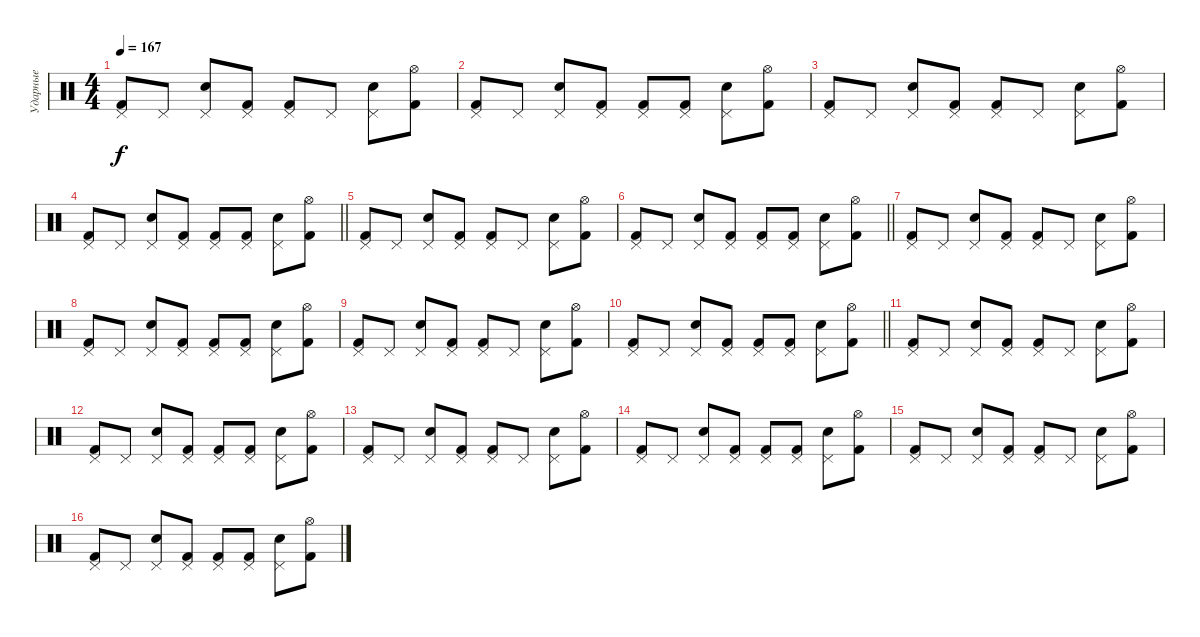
\track ("Ударные" "Ударные") {instrument percussion}
\staff {score}
\articulation defaults
\ts (4 4)
\tempo 167
\clef neutral
\ks c
("Pedal Hi-Hat (hit)" "Kick (hit) 2").8{dy f} "Pedal Hi-Hat (hit)".8 ("Pedal Hi-Hat (hit)" "Electric Snare (hit)").8 ("Pedal Hi-Hat (hit)" "Kick (hit) 2").8 ("Pedal Hi-Hat (hit)" "Kick (hit) 2").8 "Pedal Hi-Hat (hit)".8 ("Pedal Hi-Hat (hit)" "Electric Snare (hit)").8 ("Hi-Hat (open)" "Kick (hit) 2").8 |
("Pedal Hi-Hat (hit)" "Kick (hit) 2").8 "Pedal Hi-Hat (hit)".8 ("Pedal Hi-Hat (hit)" "Electric Snare (hit)").8 ("Pedal Hi-Hat (hit)" "Kick (hit) 2").8 ("Pedal Hi-Hat (hit)" "Kick (hit) 2").8 ("Pedal Hi-Hat (hit)" "Kick (hit) 2").8 ("Pedal Hi-Hat (hit)" "Electric Snare (hit)").8 ("Hi-Hat (open)" "Kick (hit) 2").8 |
("Pedal Hi-Hat (hit)" "Kick (hit) 2").8 "Pedal Hi-Hat (hit)".8 ("Pedal Hi-Hat (hit)" "Electric Snare (hit)").8 ("Pedal Hi-Hat (hit)" "Kick (hit) 2").8 ("Pedal Hi-Hat (hit)" "Kick (hit) 2").8 "Pedal Hi-Hat (hit)".8 ("Pedal Hi-Hat (hit)" "Electric Snare (hit)").8 ("Hi-Hat (open)" "Kick (hit) 2").8 |
\barLineRight lightlight
("Pedal Hi-Hat (hit)" "Kick (hit) 2").8 "Pedal Hi-Hat (hit)".8 ("Pedal Hi-Hat (hit)" "Electric Snare (hit)").8 ("Pedal Hi-Hat (hit)" "Kick (hit) 2").8 ("Pedal Hi-Hat (hit)" "Kick (hit) 2").8 ("Pedal Hi-Hat (hit)" "Kick (hit) 2").8 ("Pedal Hi-Hat (hit)" "Electric Snare (hit)").8 ("Hi-Hat (open)" "Kick (hit) 2").8 |
("Pedal Hi-Hat (hit)" "Kick (hit) 2").8 "Pedal Hi-Hat (hit)".8 ("Pedal Hi-Hat (hit)" "Electric Snare (hit)").8 ("Pedal Hi-Hat (hit)" "Kick (hit) 2").8 ("Pedal Hi-Hat (hit)" "Kick (hit) 2").8 "Pedal Hi-Hat (hit)".8 ("Pedal Hi-Hat (hit)" "Electric Snare (hit)").8 ("Hi-Hat (open)" "Kick (hit) 2").8 |
\barLineRight lightlight
("Pedal Hi-Hat (hit)" "Kick (hit) 2").8 "Pedal Hi-Hat (hit)".8 ("Pedal Hi-Hat (hit)" "Electric Snare (hit)").8 ("Pedal Hi-Hat (hit)" "Kick (hit) 2").8 ("Pedal Hi-Hat (hit)" "Kick (hit) 2").8 ("Pedal Hi-Hat (hit)" "Kick (hit) 2").8 ("Pedal Hi-Hat (hit)" "Electric Snare (hit)").8 ("Hi-Hat (open)" "Kick (hit) 2").8 |
("Pedal Hi-Hat (hit)" "Kick (hit) 2").8 "Pedal Hi-Hat (hit)".8 ("Pedal Hi-Hat (hit)" "Electric Snare (hit)").8 ("Pedal Hi-Hat (hit)" "Kick (hit) 2").8 ("Pedal Hi-Hat (hit)" "Kick (hit) 2").8 "Pedal Hi-Hat (hit)".8 ("Pedal Hi-Hat (hit)" "Electric Snare (hit)").8 ("Hi-Hat (open)" "Kick (hit) 2").8 |
("Pedal Hi-Hat (hit)" "Kick (hit) 2").8 "Pedal Hi-Hat (hit)".8 ("Pedal Hi-Hat (hit)" "Electric Snare (hit)").8 ("Pedal Hi-Hat (hit)" "Kick (hit) 2").8 ("Pedal Hi-Hat (hit)" "Kick (hit) 2").8 ("Pedal Hi-Hat (hit)" "Kick (hit) 2").8 ("Pedal Hi-Hat (hit)" "Electric Snare (hit)").8 ("Hi-Hat (open)" "Kick (hit) 2").8 |
("Pedal Hi-Hat (hit)" "Kick (hit) 2").8 "Pedal Hi-Hat (hit)".8 ("Pedal Hi-Hat (hit)" "Electric Snare (hit)").8 ("Pedal Hi-Hat (hit)" "Kick (hit) 2").8 ("Pedal Hi-Hat (hit)" "Kick (hit) 2").8 "Pedal Hi-Hat (hit)".8 ("Pedal Hi-Hat (hit)" "Electric Snare (hit)").8 ("Hi-Hat (open)" "Kick (hit) 2").8 |
\barLineRight lightlight
("Pedal Hi-Hat (hit)" "Kick (hit) 2").8 "Pedal Hi-Hat (hit)".8 ("Pedal Hi-Hat (hit)" "Electric Snare (hit)").8 ("Pedal Hi-Hat (hit)" "Kick (hit) 2").8 ("Pedal Hi-Hat (hit)" "Kick (hit) 2").8 ("Pedal Hi-Hat (hit)" "Kick (hit) 2").8 ("Pedal Hi-Hat (hit)" "Electric Snare (hit)").8 ("Hi-Hat (open)" "Kick (hit) 2").8 |
("Pedal Hi-Hat (hit)" "Kick (hit) 2").8 "Pedal Hi-Hat (hit)".8 ("Pedal Hi-Hat (hit)" "Electric Snare (hit)").8 ("Pedal Hi-Hat (hit)" "Kick (hit) 2").8 ("Pedal Hi-Hat (hit)" "Kick (hit) 2").8 "Pedal Hi-Hat (hit)".8 ("Pedal Hi-Hat (hit)" "Electric Snare (hit)").8 ("Hi-Hat (open)" "Kick (hit) 2").8 |
("Pedal Hi-Hat (hit)" "Kick (hit) 2").8 "Pedal Hi-Hat (hit)".8 ("Pedal Hi-Hat (hit)" "Electric Snare (hit)").8 ("Pedal Hi-Hat (hit)" "Kick (hit) 2").8 ("Pedal Hi-Hat (hit)" "Kick (hit) 2").8 ("Pedal Hi-Hat (hit)" "Kick (hit) 2").8 ("Pedal Hi-Hat (hit)" "Electric Snare (hit)").8 ("Hi-Hat (open)" "Kick (hit) 2").8 |
("Pedal Hi-Hat (hit)" "Kick (hit) 2").8 "Pedal Hi-Hat (hit)".8 ("Pedal Hi-Hat (hit)" "Electric Snare (hit)").8 ("Pedal Hi-Hat (hit)" "Kick (hit) 2").8 ("Pedal Hi-Hat (hit)" "Kick (hit) 2").8 "Pedal Hi-Hat (hit)".8 ("Pedal Hi-Hat (hit)" "Electric Snare (hit)").8 ("Hi-Hat (open)" "Kick (hit) 2").8 |
("Pedal Hi-Hat (hit)" "Kick (hit) 2").8 "Pedal Hi-Hat (hit)".8 ("Pedal Hi-Hat (hit)" "Electric Snare (hit)").8 ("Pedal Hi-Hat (hit)" "Kick (hit) 2").8 ("Pedal Hi-Hat (hit)" "Kick (hit) 2").8 ("Pedal Hi-Hat (hit)" "Kick (hit) 2").8 ("Pedal Hi-Hat (hit)" "Electric Snare (hit)").8 ("Hi-Hat (open)" "Kick (hit) 2").8 |
("Pedal Hi-Hat (hit)" "Kick (hit) 2").8 "Pedal Hi-Hat (hit)".8 ("Pedal Hi-Hat (hit)" "Electric Snare (hit)").8 ("Pedal Hi-Hat (hit)" "Kick (hit) 2").8 ("Pedal Hi-Hat (hit)" "Kick (hit) 2").8 "Pedal Hi-Hat (hit)".8 ("Pedal Hi-Hat (hit)" "Electric Snare (hit)").8 ("Hi-Hat (open)" "Kick (hit) 2").8 |
("Pedal Hi-Hat (hit)" "Kick (hit) 2").8 "Pedal Hi-Hat (hit)".8 ("Pedal Hi-Hat (hit)" "Electric Snare (hit)").8 ("Pedal Hi-Hat (hit)" "Kick (hit) 2").8 ("Pedal Hi-Hat (hit)" "Kick (hit) 2").8 ("Pedal Hi-Hat (hit)" "Kick (hit) 2").8 ("Pedal Hi-Hat (hit)" "Electric Snare (hit)").8 ("Hi-Hat (open)" "Kick (hit) 2").8
